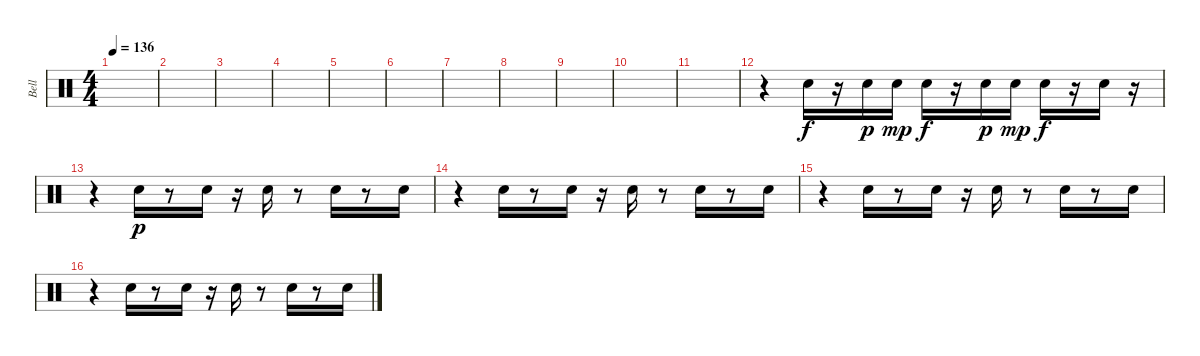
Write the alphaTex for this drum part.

\track ("Bell" "Bell") {instrument percussion}
\staff {score}
\articulation defaults
\ts (4 4)
\tempo 136
\clef neutral
\ks c
|
|
|
|
|
|
|
|
|
|
|
r.4 "Metronome (bell)".16 r.16 "Metronome (bell)".16{dy p} "Metronome (bell)".16{dy mp} "Metronome (bell)".16{dy f} r.16 "Metronome (bell)".16{dy p} "Metronome (bell)".16{dy mp} "Metronome (bell)".16{dy f} r.16 "Metronome (bell)".16 r.16 |
r.4 "Metronome (bell)".16{dy p} r.8 "Metronome (bell)".16 r.16 "Metronome (bell)".16 r.8 "Metronome (bell)".16 r.8 "Metronome (bell)".16 |
r.4 "Metronome (bell)".16 r.8 "Metronome (bell)".16 r.16 "Metronome (bell)".16 r.8 "Metronome (bell)".16 r.8 "Metronome (bell)".16 |
r.4 "Metronome (bell)".16 r.8 "Metronome (bell)".16 r.16 "Metronome (bell)".16 r.8 "Metronome (bell)".16 r.8 "Metronome (bell)".16 |
r.4 "Metronome (bell)".16 r.8 "Metronome (bell)".16 r.16 "Metronome (bell)".16 r.8 "Metronome (bell)".16 r.8 "Metronome (bell)".16
